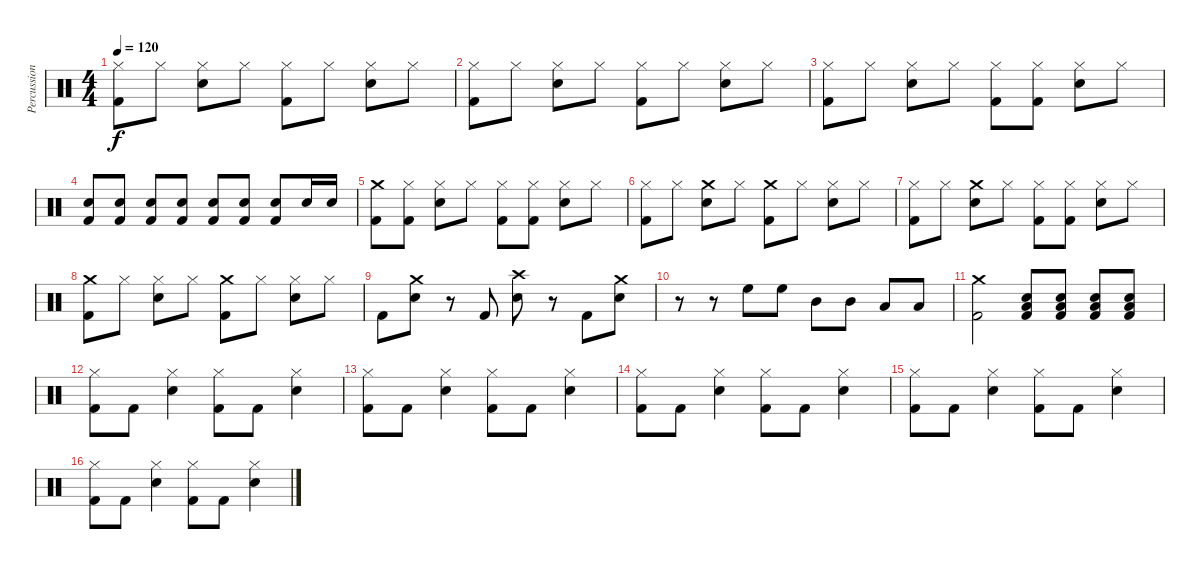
\track ("Percussions" "Percussion") {instrument percussion}
\staff {score}
\articulation defaults
\ts (4 4)
\tempo 120
\clef neutral
\ks c
("Hi-Hat (closed)" "Kick (hit) 2").8{dy f} "Hi-Hat (closed)".8 ("Hi-Hat (closed)" "Electric Snare (hit)").8 "Hi-Hat (closed)".8 ("Hi-Hat (closed)" "Kick (hit) 2").8 "Hi-Hat (closed)".8 ("Hi-Hat (closed)" "Electric Snare (hit)").8 "Hi-Hat (closed)".8 |
("Hi-Hat (closed)" "Kick (hit) 2").8 "Hi-Hat (closed)".8 ("Hi-Hat (closed)" "Electric Snare (hit)").8 "Hi-Hat (closed)".8 ("Hi-Hat (closed)" "Kick (hit) 2").8 "Hi-Hat (closed)".8 ("Hi-Hat (closed)" "Electric Snare (hit)").8 "Hi-Hat (closed)".8 |
("Hi-Hat (closed)" "Kick (hit) 2").8 "Hi-Hat (closed)".8 ("Hi-Hat (closed)" "Electric Snare (hit)").8 "Hi-Hat (closed)".8 ("Hi-Hat (closed)" "Kick (hit) 2").8 ("Hi-Hat (closed)" "Kick (hit) 2").8 ("Hi-Hat (closed)" "Electric Snare (hit)").8 "Hi-Hat (closed)".8 |
("Electric Snare (hit)" "Kick (hit) 2").8 ("Electric Snare (hit)" "Kick (hit) 2").8 ("Electric Snare (hit)" "Kick (hit) 2").8 ("Electric Snare (hit)" "Kick (hit) 2").8 ("Electric Snare (hit)" "Kick (hit) 2").8 ("Electric Snare (hit)" "Kick (hit) 2").8 ("Electric Snare (hit)" "Kick (hit) 2").8 "Electric Snare (hit)".16 "Electric Snare (hit)".16 |
("Crash medium (hit)" "Kick (hit) 2").8 ("Hi-Hat (closed)" "Kick (hit) 2").8 ("Hi-Hat (closed)" "Electric Snare (hit)").8 "Hi-Hat (closed)".8 ("Hi-Hat (closed)" "Kick (hit) 2").8 ("Hi-Hat (closed)" "Kick (hit) 2").8 ("Hi-Hat (closed)" "Electric Snare (hit)").8 "Hi-Hat (closed)".8 |
("Hi-Hat (closed)" "Kick (hit) 2").8 "Hi-Hat (closed)".8 ("Crash medium (hit)" "Electric Snare (hit)").8 "Hi-Hat (closed)".8 ("Crash medium (hit)" "Kick (hit) 2").8 "Hi-Hat (closed)".8 ("Hi-Hat (closed)" "Electric Snare (hit)").8 "Hi-Hat (closed)".8 |
("Hi-Hat (closed)" "Kick (hit) 2").8 "Hi-Hat (closed)".8 ("Crash medium (hit)" "Electric Snare (hit)").8 "Hi-Hat (closed)".8 ("Hi-Hat (closed)" "Kick (hit) 2").8 ("Hi-Hat (closed)" "Kick (hit) 2").8 ("Hi-Hat (closed)" "Electric Snare (hit)").8 "Hi-Hat (closed)".8 |
("Crash medium (hit)" "Kick (hit) 2").8 "Hi-Hat (closed)".8 ("Hi-Hat (closed)" "Electric Snare (hit)").8 "Hi-Hat (closed)".8 ("Crash medium (hit)" "Kick (hit) 2").8 "Hi-Hat (closed)".8 ("Hi-Hat (closed)" "Electric Snare (hit)").8 "Hi-Hat (closed)".8 |
"Kick (hit) 2".8 ("Crash medium (hit)" "Electric Snare (hit)").8 r.8 "Kick (hit) 2".8 ("Crash high (hit)" "Electric Snare (hit)").8 r.8 "Kick (hit) 2".8 ("Crash medium (hit)" "Electric Snare (hit)").8 |
r.8 r.8 "High Floor Tom (hit)".8 "High Floor Tom (hit)".8 "Mid Tom (hit)".8 "Mid Tom (hit)".8 "Low Tom (hit)".8 "Low Tom (hit)".8 |
("Crash medium (hit)" "Kick (hit) 2").2 ("Electric Snare (hit)" "Low Tom (hit)" "Kick (hit) 2").8 ("Electric Snare (hit)" "Low Tom (hit)" "Kick (hit) 2").8 ("Electric Snare (hit)" "Low Tom (hit)" "Kick (hit) 2").8 ("Electric Snare (hit)" "Low Tom (hit)" "Kick (hit) 2").8 |
("Hi-Hat (closed)" "Kick (hit) 2").8 "Kick (hit) 2".8 ("Hi-Hat (closed)" "Electric Snare (hit)").4 ("Hi-Hat (closed)" "Kick (hit) 2").8 "Kick (hit) 2".8 ("Hi-Hat (closed)" "Electric Snare (hit)").4 |
("Hi-Hat (closed)" "Kick (hit) 2").8 "Kick (hit) 2".8 ("Hi-Hat (closed)" "Electric Snare (hit)").4 ("Hi-Hat (closed)" "Kick (hit) 2").8 "Kick (hit) 2".8 ("Hi-Hat (closed)" "Electric Snare (hit)").4 |
("Hi-Hat (closed)" "Kick (hit) 2").8 "Kick (hit) 2".8 ("Hi-Hat (closed)" "Electric Snare (hit)").4 ("Hi-Hat (closed)" "Kick (hit) 2").8 "Kick (hit) 2".8 ("Hi-Hat (closed)" "Electric Snare (hit)").4 |
("Hi-Hat (closed)" "Kick (hit) 2").8 "Kick (hit) 2".8 ("Hi-Hat (closed)" "Electric Snare (hit)").4 ("Hi-Hat (closed)" "Kick (hit) 2").8 "Kick (hit) 2".8 ("Hi-Hat (closed)" "Electric Snare (hit)").4 |
("Hi-Hat (closed)" "Kick (hit) 2").8 "Kick (hit) 2".8 ("Hi-Hat (closed)" "Electric Snare (hit)").4 ("Hi-Hat (closed)" "Kick (hit) 2").8 "Kick (hit) 2".8 ("Hi-Hat (closed)" "Electric Snare (hit)").4
